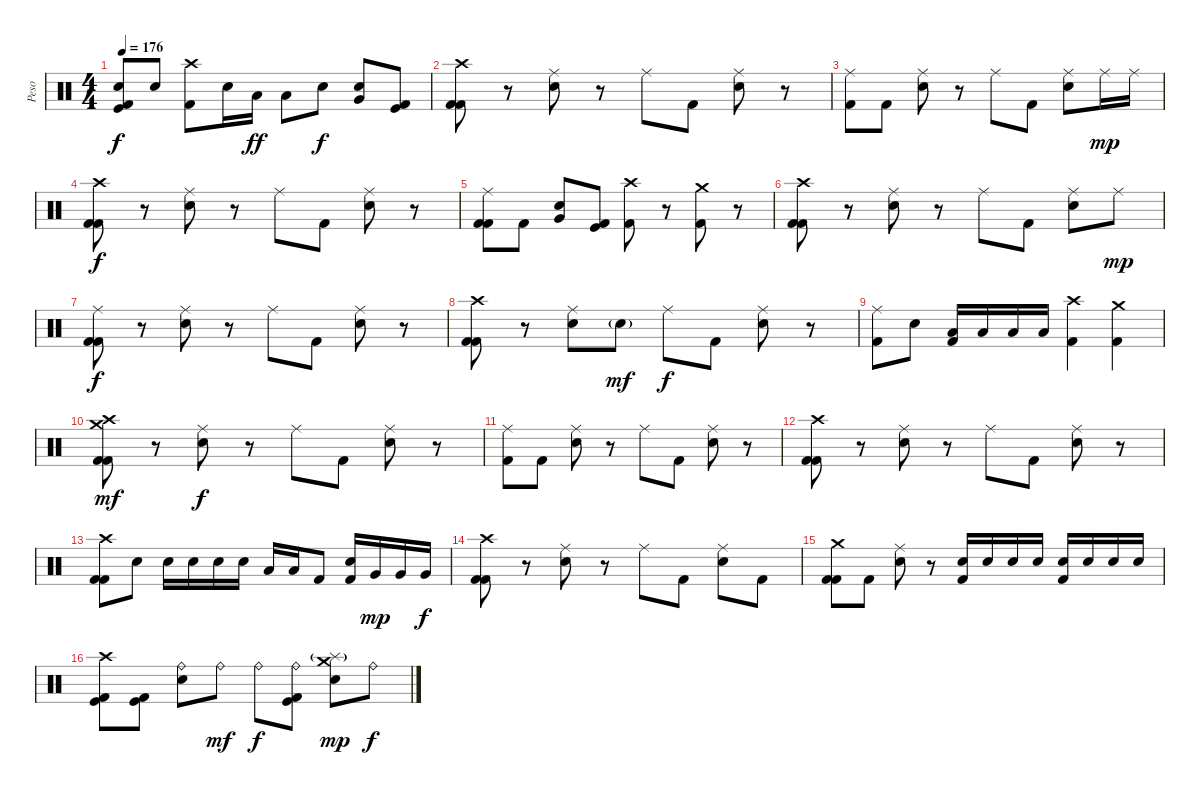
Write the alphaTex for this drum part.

\track ("Peso" "Peso") {instrument percussion}
\staff {score}
\articulation defaults
\ts (4 4)
\tempo 176
\clef neutral
\ks c
("Electric Snare (hit)" "Kick (hit)" "Kick (hit) 2").8{dy f} "Electric Snare (hit)".8 ("Crash high (hit)" "Kick (hit) 2").8 "Electric Snare (hit)".16 "Low Tom (hit)".16{dy ff} "Low Tom (hit)".8 "Electric Snare (hit)".8{dy f} ("Very Low Tom (hit)" "Electric Snare (hit)").8 ("Kick (hit)" "Kick (hit) 2").8 |
("Crash high (hit)" "Kick (hit) 2" "Kick (hit) 2").8 r.8 ("Ride (middle)" "Electric Snare (hit)").8 r.8 "Ride (middle)".8 "Kick (hit) 2".8 ("Ride (middle)" "Electric Snare (hit)").8 r.8 |
("Ride (middle)" "Kick (hit) 2").8 "Kick (hit) 2".8 ("Ride (middle)" "Electric Snare (hit)").8 r.8 "Ride (middle)".8 "Kick (hit) 2".8 ("Ride (middle)" "Electric Snare (hit)").8 "Ride (middle)".16{dy mp} "Ride (middle)".16 |
("Crash high (hit)" "Kick (hit) 2" "Kick (hit) 2").8{dy f} r.8 ("Ride (middle)" "Electric Snare (hit)").8 r.8 "Ride (middle)".8 "Kick (hit) 2".8 ("Ride (middle)" "Electric Snare (hit)").8 r.8 |
("Ride (middle)" "Kick (hit) 2" "Kick (hit) 2").8 "Kick (hit) 2".8 ("Very Low Tom (hit)" "Electric Snare (hit)").8 ("Kick (hit)" "Kick (hit) 2").8 ("Crash high (hit)" "Kick (hit) 2").8 r.8 ("Crash medium (hit)" "Kick (hit) 2").8 r.8 |
("Crash high (hit)" "Kick (hit) 2" "Kick (hit) 2").8 r.8 ("Ride (middle)" "Electric Snare (hit)").8 r.8 "Ride (middle)".8 "Kick (hit) 2".8 ("Ride (middle)" "Electric Snare (hit)").8 "Ride (middle)".8{dy mp} |
("Ride (middle)" "Kick (hit) 2" "Kick (hit) 2").8{dy f} r.8 ("Ride (middle)" "Electric Snare (hit)").8 r.8 "Ride (middle)".8 "Kick (hit) 2".8 ("Ride (middle)" "Electric Snare (hit)").8 r.8 |
("Crash high (hit)" "Kick (hit) 2" "Kick (hit) 2").8 r.8 ("Ride (middle)" "Electric Snare (hit)").8 "Electric Snare (hit)"{g}.8{dy mf} "Ride (middle)".8{dy f} "Kick (hit) 2".8 ("Ride (middle)" "Electric Snare (hit)").8 r.8 |
("Ride (middle)" "Kick (hit) 2").8 "Electric Snare (hit)".8 ("Low Tom (hit)" "Kick (hit) 2").16 "Low Tom (hit)".16 "Low Tom (hit)".16 "Low Tom (hit)".16 ("Crash high (hit)" "Kick (hit) 2").4 ("Crash medium (hit)" "Kick (hit) 2").4 |
("Crash high (hit)" "Crash medium (hit)" "Kick (hit) 2" "Kick (hit) 2").8{dy mf} r.8 ("Ride (middle)" "Electric Snare (hit)").8{dy f} r.8 "Ride (middle)".8 "Kick (hit) 2".8 ("Ride (middle)" "Electric Snare (hit)").8 r.8 |
("Ride (middle)" "Kick (hit) 2").8 "Kick (hit) 2".8 ("Ride (middle)" "Electric Snare (hit)").8 r.8 "Ride (middle)".8 "Kick (hit) 2".8 ("Ride (middle)" "Electric Snare (hit)").8 r.8 |
("Crash high (hit)" "Kick (hit) 2" "Kick (hit) 2").8 r.8 ("Ride (middle)" "Electric Snare (hit)").8 r.8 "Ride (middle)".8 "Kick (hit) 2".8 ("Ride (middle)" "Electric Snare (hit)").8 r.8 |
("Crash high (hit)" "Kick (hit) 2" "Kick (hit) 2").8 "Electric Snare (hit)".8 "Electric Snare (hit)".16 "Electric Snare (hit)".16 "Electric Snare (hit)".16 "Electric Snare (hit)".16 "Low Tom (hit)".16 "Low Tom (hit)".16 "Kick (hit) 2".8 ("Electric Snare (hit)" "Kick (hit) 2").16 "Very Low Tom (hit)".16{dy mp} "Very Low Tom (hit)".16 "Very Low Tom (hit)".16{dy f} |
("Crash high (hit)" "Kick (hit) 2" "Kick (hit) 2").8 r.8 ("Ride (middle)" "Electric Snare (hit)").8 r.8 "Ride (middle)".8 "Kick (hit) 2".8 ("Ride (middle)" "Electric Snare (hit)").8 "Kick (hit) 2".8 |
("Crash medium (hit)" "Kick (hit) 2" "Kick (hit) 2").8 "Kick (hit) 2".8 ("Ride (middle)" "Electric Snare (hit)").8 r.8 ("Electric Snare (hit)" "Kick (hit) 2").16 "Electric Snare (hit)".16 "Electric Snare (hit)".16 "Electric Snare (hit)".16 ("Electric Snare (hit)" "Kick (hit) 2").16 "Electric Snare (hit)".16 "Electric Snare (hit)".16 "Electric Snare (hit)".16 |
("Crash high (hit)" "Kick (hit)" "Kick (hit) 2").8 ("Kick (hit)" "Kick (hit) 2").8 ("Ride (bell)" "Electric Snare (hit)").8 "Ride (bell)".8{dy mf} "Ride (bell)".8{dy f} ("Ride (bell)" "Kick (hit)" "Kick (hit) 2").8 ("Crash medium (hit)" "Splash (hit)"{g} "Electric Snare (hit)").8{dy mp} "Ride (bell)".8{dy f}
